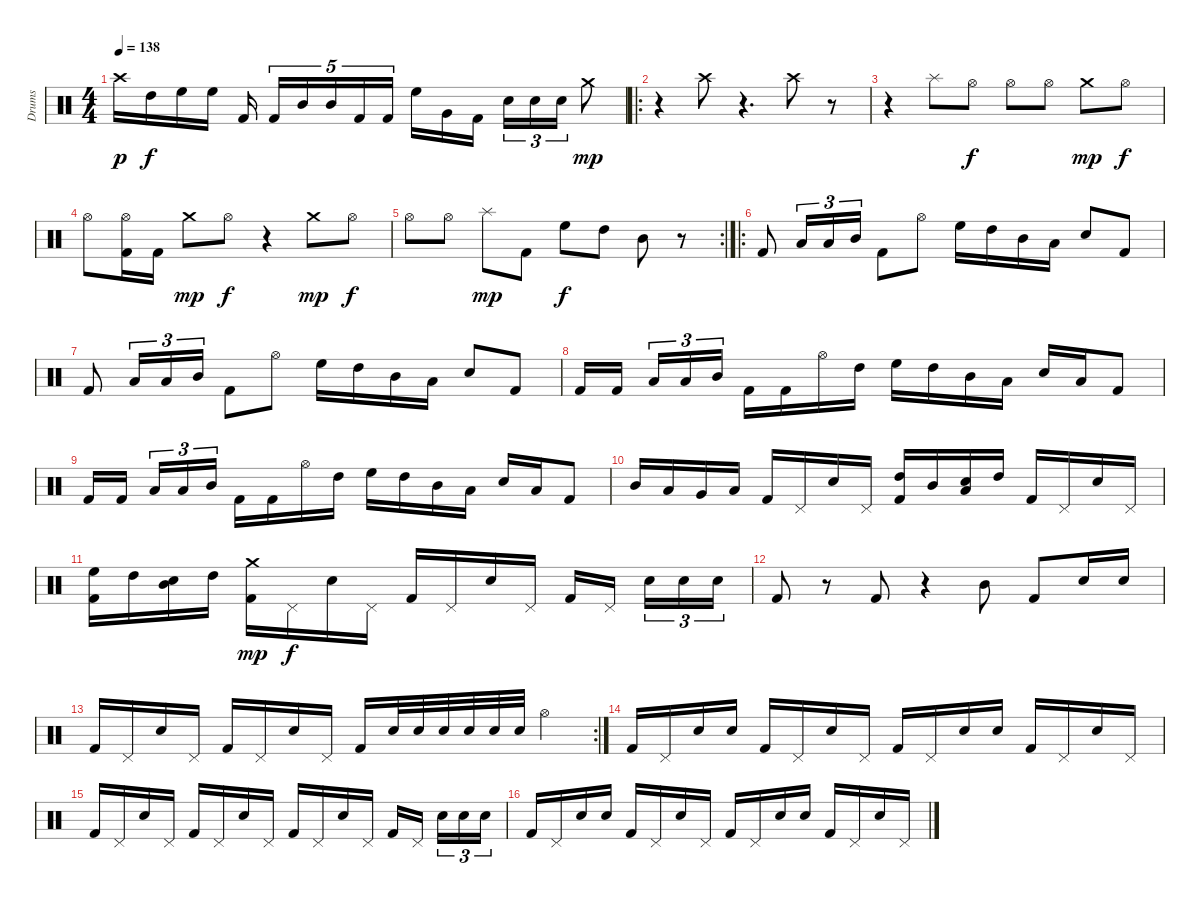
\track ("Drums" "Drums") {instrument percussion}
\staff {score}
\articulation defaults
\ts (4 4)
\tempo 138
\clef neutral
\ks c "Crash high (hit)".16{dy p} "High Tom (hit)".16{dy f} "High Floor Tom (hit)".16 "High Floor Tom (hit)".16 "Kick (hit) 2".16 "Kick (hit) 2".16{tu (5 4)} "Mid Tom (hit)".16{tu (5 4)} "Mid Tom (hit)".16{tu (5 4)} "Kick (hit) 2".16{tu (5 4)} "Kick (hit) 2".16{tu (5 4)} "High Floor Tom (hit)".16 "Very Low Tom (hit)".16 "Kick (hit) 2".16 "Electric Snare (hit)".16{tu (3 2)} "Electric Snare (hit)".16{tu (3 2)} "Electric Snare (hit)".16{tu (3 2)} "Crash medium (hit)".8{dy mp}
|
\ro
r.4 "Crash high (hit)".8 r.4{d} "Crash high (hit)".8 r.8 |
r.4 "Splash (hit)".8 "Hi-Hat (open)".8{dy f} "Hi-Hat (open)".8 "Hi-Hat (open)".8 "Crash medium (hit)".8{dy mp} "Hi-Hat (open)".8{dy f} |
"Hi-Hat (open)".8 ("Hi-Hat (open)" "Kick (hit) 2").16 "Kick (hit) 2".16 "Crash medium (hit)".8{dy mp} "Hi-Hat (open)".8{dy f} r.4 "Crash medium (hit)".8{dy mp} "Hi-Hat (open)".8{dy f} |
\rc 2 "Hi-Hat (open)".8 "Hi-Hat (open)".8 "Splash (hit)".8{dy mp} "Kick (hit) 2".8 "High Floor Tom (hit)".8{dy f} "High Tom (hit)".8 "Mid Tom (hit)".8
r.8 |
\ro "Kick (hit) 2".8 "Low Tom (hit)".16{tu (3 2)} "Low Tom (hit)".16{tu (3 2)} "Mid Tom (hit)".16{tu (3 2)} "Kick (hit) 2".8 "Hi-Hat (open)".8 "High Floor Tom (hit)".16 "High Tom (hit)".16 "Mid Tom (hit)".16 "Low Tom (hit)".16 "Electric Snare (hit)".8 "Kick (hit) 2".8
|
"Kick (hit) 2".8 "Low Tom (hit)".16{tu (3 2)} "Low Tom (hit)".16{tu (3 2)} "Mid Tom (hit)".16{tu (3 2)} "Kick (hit) 2".8 "Hi-Hat (open)".8 "High Floor Tom (hit)".16 "High Tom (hit)".16 "Mid Tom (hit)".16 "Low Tom (hit)".16 "Electric Snare (hit)".8 "Kick (hit) 2".8 |
"Kick (hit) 2".16 "Kick (hit) 2".16 "Low Tom (hit)".16{tu (3 2)} "Low Tom (hit)".16{tu (3 2)} "Mid Tom (hit)".16{tu (3 2)} "Kick (hit) 2".16 "Kick (hit) 2".16 "Hi-Hat (open)".16 "High Tom (hit)".16 "High Floor Tom (hit)".16 "High Tom (hit)".16 "Mid Tom (hit)".16 "Low Tom (hit)".16 "Electric Snare (hit)".16 "Low Tom (hit)".16 "Kick (hit) 2".8 |
"Kick (hit) 2".16 "Kick (hit) 2".16 "Low Tom (hit)".16{tu (3 2)} "Low Tom (hit)".16{tu (3 2)} "Mid Tom (hit)".16{tu (3 2)} "Kick (hit) 2".16 "Kick (hit) 2".16 "Hi-Hat (open)".16 "High Tom (hit)".16 "High Floor Tom (hit)".16 "High Tom (hit)".16 "Mid Tom (hit)".16 "Low Tom (hit)".16 "Electric Snare (hit)".16 "Low Tom (hit)".16 "Kick (hit) 2".8 |
"Mid Tom (hit)".16 "Low Tom (hit)".16 "Very Low Tom (hit)".16 "Low Tom (hit)".16 "Kick (hit) 2".16 "Pedal Hi-Hat (hit)".16 "Electric Snare (hit)".16 "Pedal Hi-Hat (hit)".16 ("High Tom (hit)" "Kick (hit) 2").16 "Mid Tom (hit)".16 ("Low Tom (hit)" "Electric Snare (hit)").16 "High Tom (hit)".16 "Kick (hit) 2".16 "Pedal Hi-Hat (hit)".16 "Electric Snare (hit)".16 "Pedal Hi-Hat (hit)".16 |
("High Floor Tom (hit)" "Kick (hit) 2").16 "High Tom (hit)".16 ("Mid Tom (hit)" "Electric Snare (hit)").16 "High Tom (hit)".16 ("Crash medium (hit)" "Kick (hit) 2").16{dy mp} "Pedal Hi-Hat (hit)".16{dy f} "Electric Snare (hit)".16 "Pedal Hi-Hat (hit)".16 "Kick (hit) 2".16 "Pedal Hi-Hat (hit)".16 "Electric Snare (hit)".16 "Pedal Hi-Hat (hit)".16 "Kick (hit) 2".16 "Pedal Hi-Hat (hit)".16 "Electric Snare (hit)".16{tu (3 2)} "Electric Snare (hit)".16{tu (3 2)} "Electric Snare (hit)".16{tu (3 2)} |
"Kick (hit) 2".8 r.8 "Kick (hit) 2".8 r.4 "Mid Tom (hit)".8 "Kick (hit) 2".8 "Electric Snare (hit)".16 "Electric Snare (hit)".16 |
\rc 2 "Kick (hit) 2".16 "Pedal Hi-Hat (hit)".16 "Electric Snare (hit)".16 "Pedal Hi-Hat (hit)".16 "Kick (hit) 2".16 "Pedal Hi-Hat (hit)".16 "Electric Snare (hit)".16 "Pedal Hi-Hat (hit)".16 "Kick (hit) 2".16 "Electric Snare (hit)".32 "Electric Snare (hit)".32 "Electric Snare (hit)".32 "Electric Snare (hit)".32 "Electric Snare (hit)".32 "Electric Snare (hit)".32 "Hi-Hat (open)".4
|
"Kick (hit) 2".16 "Pedal Hi-Hat (hit)".16 "Electric Snare (hit)".16 "Electric Snare (hit)".16 "Kick (hit) 2".16 "Pedal Hi-Hat (hit)".16 "Electric Snare (hit)".16 "Pedal Hi-Hat (hit)".16 "Kick (hit) 2".16 "Pedal Hi-Hat (hit)".16 "Electric Snare (hit)".16 "Electric Snare (hit)".16 "Kick (hit) 2".16 "Pedal Hi-Hat (hit)".16 "Electric Snare (hit)".16 "Pedal Hi-Hat (hit)".16 |
"Kick (hit) 2".16 "Pedal Hi-Hat (hit)".16 "Electric Snare (hit)".16 "Pedal Hi-Hat (hit)".16 "Kick (hit) 2".16 "Pedal Hi-Hat (hit)".16 "Electric Snare (hit)".16 "Pedal Hi-Hat (hit)".16 "Kick (hit) 2".16 "Pedal Hi-Hat (hit)".16 "Electric Snare (hit)".16 "Pedal Hi-Hat (hit)".16 "Kick (hit) 2".16 "Pedal Hi-Hat (hit)".16 "Electric Snare (hit)".16{tu (3 2)} "Electric Snare (hit)".16{tu (3 2)} "Electric Snare (hit)".16{tu (3 2)} |
"Kick (hit) 2".16 "Pedal Hi-Hat (hit)".16 "Electric Snare (hit)".16 "Electric Snare (hit)".16 "Kick (hit) 2".16 "Pedal Hi-Hat (hit)".16 "Electric Snare (hit)".16 "Pedal Hi-Hat (hit)".16 "Kick (hit) 2".16 "Pedal Hi-Hat (hit)".16 "Electric Snare (hit)".16 "Electric Snare (hit)".16 "Kick (hit) 2".16 "Pedal Hi-Hat (hit)".16 "Electric Snare (hit)".16 "Pedal Hi-Hat (hit)".16
